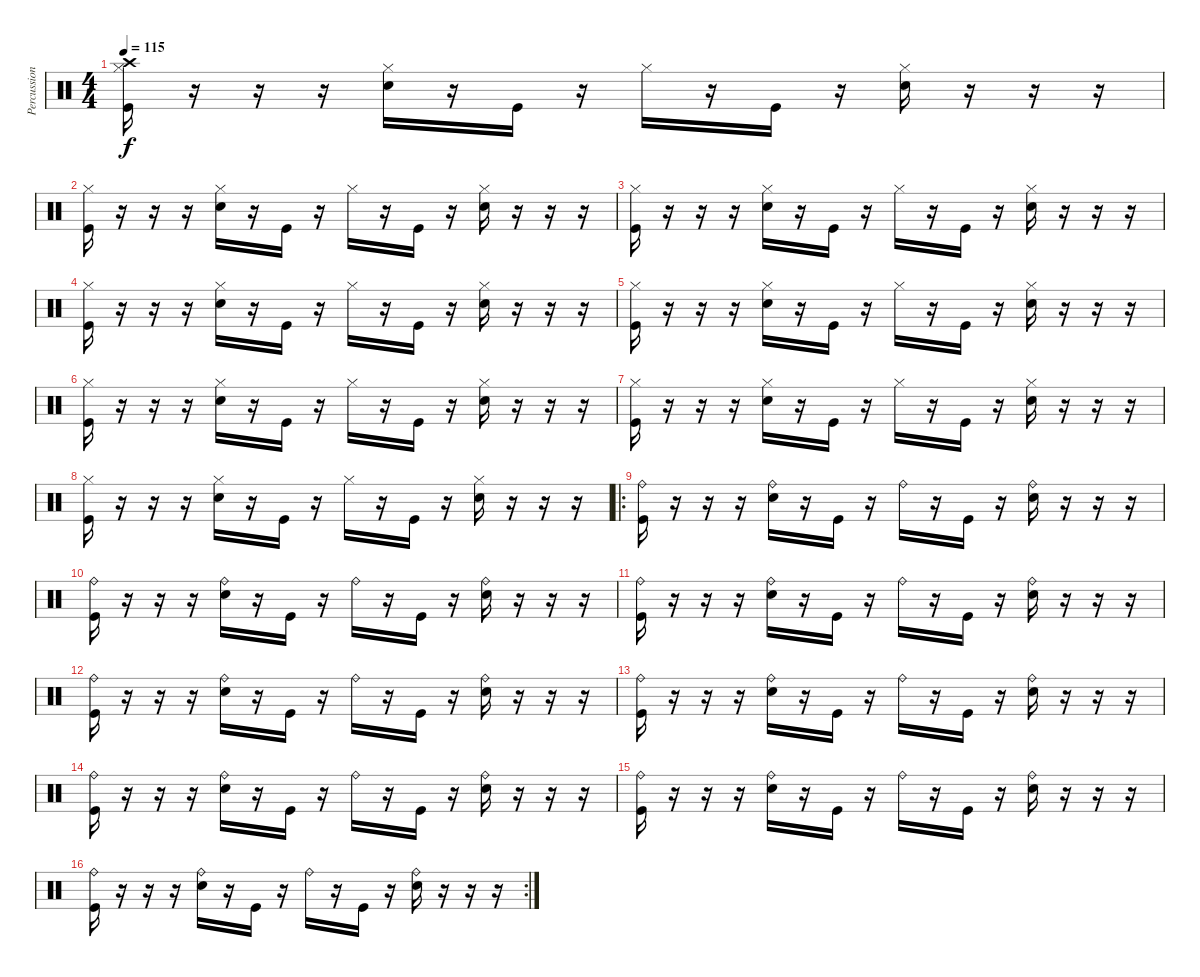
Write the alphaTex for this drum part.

\track ("Percussion" "Percussion") {instrument percussion}
\staff {score}
\articulation defaults
\ts (4 4)
\tempo 115
\clef neutral
\ks c
("Crash high (hit)" "Hi-Hat (closed)" "Kick (hit)").16{dy f} r.16 r.16 r.16 ("Hi-Hat (closed)" "Snare (hit) 2").16 r.16 "Kick (hit)".16 r.16 "Hi-Hat (closed)".16 r.16 "Kick (hit)".16 r.16 ("Hi-Hat (closed)" "Snare (hit) 2").16 r.16 r.16 r.16 |
("Hi-Hat (closed)" "Kick (hit)").16 r.16 r.16 r.16 ("Hi-Hat (closed)" "Snare (hit) 2").16 r.16 "Kick (hit)".16 r.16 "Hi-Hat (closed)".16 r.16 "Kick (hit)".16 r.16 ("Hi-Hat (closed)" "Snare (hit) 2").16 r.16 r.16 r.16 |
("Hi-Hat (closed)" "Kick (hit)").16 r.16 r.16 r.16 ("Hi-Hat (closed)" "Snare (hit) 2").16 r.16 "Kick (hit)".16 r.16 "Hi-Hat (closed)".16 r.16 "Kick (hit)".16 r.16 ("Hi-Hat (closed)" "Snare (hit) 2").16 r.16 r.16 r.16 |
("Hi-Hat (closed)" "Kick (hit)").16 r.16 r.16 r.16 ("Hi-Hat (closed)" "Snare (hit) 2").16 r.16 "Kick (hit)".16 r.16 "Hi-Hat (closed)".16 r.16 "Kick (hit)".16 r.16 ("Hi-Hat (closed)" "Snare (hit) 2").16 r.16 r.16 r.16 |
("Hi-Hat (closed)" "Kick (hit)").16 r.16 r.16 r.16 ("Hi-Hat (closed)" "Snare (hit) 2").16 r.16 "Kick (hit)".16 r.16 "Hi-Hat (closed)".16 r.16 "Kick (hit)".16 r.16 ("Hi-Hat (closed)" "Snare (hit) 2").16 r.16 r.16 r.16 |
("Hi-Hat (closed)" "Kick (hit)").16 r.16 r.16 r.16 ("Hi-Hat (closed)" "Snare (hit) 2").16 r.16 "Kick (hit)".16 r.16 "Hi-Hat (closed)".16 r.16 "Kick (hit)".16 r.16 ("Hi-Hat (closed)" "Snare (hit) 2").16 r.16 r.16 r.16 |
("Hi-Hat (closed)" "Kick (hit)").16 r.16 r.16 r.16 ("Hi-Hat (closed)" "Snare (hit) 2").16 r.16 "Kick (hit)".16 r.16 "Hi-Hat (closed)".16 r.16 "Kick (hit)".16 r.16 ("Hi-Hat (closed)" "Snare (hit) 2").16 r.16 r.16 r.16 |
("Hi-Hat (closed)" "Kick (hit)").16 r.16 r.16 r.16 ("Hi-Hat (closed)" "Snare (hit) 2").16 r.16 "Kick (hit)".16 r.16 "Hi-Hat (closed)".16 r.16 "Kick (hit)".16 r.16 ("Hi-Hat (closed)" "Snare (hit) 2").16 r.16 r.16 r.16 |
\ro
("Ride (bell)" "Kick (hit)").16 r.16 r.16 r.16 ("Ride (bell)" "Snare (hit) 2").16 r.16 "Kick (hit)".16 r.16 "Ride (bell)".16 r.16 "Kick (hit)".16 r.16 ("Ride (bell)" "Snare (hit) 2").16 r.16 r.16 r.16 |
("Ride (bell)" "Kick (hit)").16 r.16 r.16 r.16 ("Ride (bell)" "Snare (hit) 2").16 r.16 "Kick (hit)".16 r.16 "Ride (bell)".16 r.16 "Kick (hit)".16 r.16 ("Ride (bell)" "Snare (hit) 2").16 r.16 r.16 r.16 |
("Ride (bell)" "Kick (hit)").16 r.16 r.16 r.16 ("Ride (bell)" "Snare (hit) 2").16 r.16 "Kick (hit)".16 r.16 "Ride (bell)".16 r.16 "Kick (hit)".16 r.16 ("Ride (bell)" "Snare (hit) 2").16 r.16 r.16 r.16 |
("Ride (bell)" "Kick (hit)").16 r.16 r.16 r.16 ("Ride (bell)" "Snare (hit) 2").16 r.16 "Kick (hit)".16 r.16 "Ride (bell)".16 r.16 "Kick (hit)".16 r.16 ("Ride (bell)" "Snare (hit) 2").16 r.16 r.16 r.16 |
("Ride (bell)" "Kick (hit)").16 r.16 r.16 r.16 ("Ride (bell)" "Snare (hit) 2").16 r.16 "Kick (hit)".16 r.16 "Ride (bell)".16 r.16 "Kick (hit)".16 r.16 ("Ride (bell)" "Snare (hit) 2").16 r.16 r.16 r.16 |
("Ride (bell)" "Kick (hit)").16 r.16 r.16 r.16 ("Ride (bell)" "Snare (hit) 2").16 r.16 "Kick (hit)".16 r.16 "Ride (bell)".16 r.16 "Kick (hit)".16 r.16 ("Ride (bell)" "Snare (hit) 2").16 r.16 r.16 r.16 |
("Ride (bell)" "Kick (hit)").16 r.16 r.16 r.16 ("Ride (bell)" "Snare (hit) 2").16 r.16 "Kick (hit)".16 r.16 "Ride (bell)".16 r.16 "Kick (hit)".16 r.16 ("Ride (bell)" "Snare (hit) 2").16 r.16 r.16 r.16 |
\rc 2
("Ride (bell)" "Kick (hit)").16 r.16 r.16 r.16 ("Ride (bell)" "Snare (hit) 2").16 r.16 "Kick (hit)".16 r.16 "Ride (bell)".16 r.16 "Kick (hit)".16 r.16 ("Ride (bell)" "Snare (hit) 2").16 r.16 r.16 r.16
